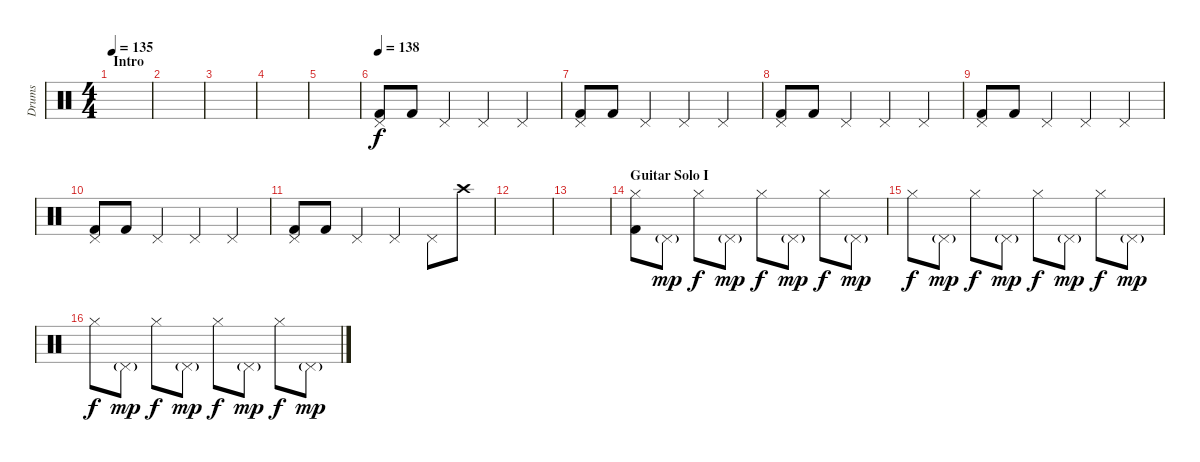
\track ("Drums" "Drums") {instrument percussion}
\staff {score}
\articulation defaults
\ts (4 4)
\section ("" "Intro")
\tempo 135
\tempo 110
\tempo 135
\clef neutral
\ks c
|
|
|
|
|
\tempo 138
("Pedal Hi-Hat (hit)" "Kick (hit) 2").8 "Kick (hit) 2".8 "Pedal Hi-Hat (hit)".4 "Pedal Hi-Hat (hit)".4 "Pedal Hi-Hat (hit)".4 |
("Pedal Hi-Hat (hit)" "Kick (hit) 2").8 "Kick (hit) 2".8 "Pedal Hi-Hat (hit)".4 "Pedal Hi-Hat (hit)".4 "Pedal Hi-Hat (hit)".4 |
("Pedal Hi-Hat (hit)" "Kick (hit) 2").8 "Kick (hit) 2".8 "Pedal Hi-Hat (hit)".4 "Pedal Hi-Hat (hit)".4 "Pedal Hi-Hat (hit)".4 |
("Pedal Hi-Hat (hit)" "Kick (hit) 2").8 "Kick (hit) 2".8 "Pedal Hi-Hat (hit)".4 "Pedal Hi-Hat (hit)".4 "Pedal Hi-Hat (hit)".4 |
("Pedal Hi-Hat (hit)" "Kick (hit) 2").8 "Kick (hit) 2".8 "Pedal Hi-Hat (hit)".4 "Pedal Hi-Hat (hit)".4 "Pedal Hi-Hat (hit)".4 |
("Pedal Hi-Hat (hit)" "Kick (hit) 2").8 "Kick (hit) 2".8 "Pedal Hi-Hat (hit)".4 "Pedal Hi-Hat (hit)".4 "Pedal Hi-Hat (hit)".8 "Crash high (hit)".8 |
|
|
\section ("" "Guitar Solo I")
("Hi-Hat (closed)" "Kick (hit) 2").8 "Pedal Hi-Hat (hit)"{g}.8{dy mp} "Hi-Hat (closed)".8{dy f} "Pedal Hi-Hat (hit)"{g}.8{dy mp} "Hi-Hat (closed)".8{dy f} "Pedal Hi-Hat (hit)"{g}.8{dy mp} "Hi-Hat (closed)".8{dy f} "Pedal Hi-Hat (hit)"{g}.8{dy mp} |
"Hi-Hat (closed)".8{dy f} "Pedal Hi-Hat (hit)"{g}.8{dy mp} "Hi-Hat (closed)".8{dy f} "Pedal Hi-Hat (hit)"{g}.8{dy mp} "Hi-Hat (closed)".8{dy f} "Pedal Hi-Hat (hit)"{g}.8{dy mp} "Hi-Hat (closed)".8{dy f} "Pedal Hi-Hat (hit)"{g}.8{dy mp} |
"Hi-Hat (closed)".8{dy f} "Pedal Hi-Hat (hit)"{g}.8{dy mp} "Hi-Hat (closed)".8{dy f} "Pedal Hi-Hat (hit)"{g}.8{dy mp} "Hi-Hat (closed)".8{dy f} "Pedal Hi-Hat (hit)"{g}.8{dy mp} "Hi-Hat (closed)".8{dy f} "Pedal Hi-Hat (hit)"{g}.8{dy mp}
